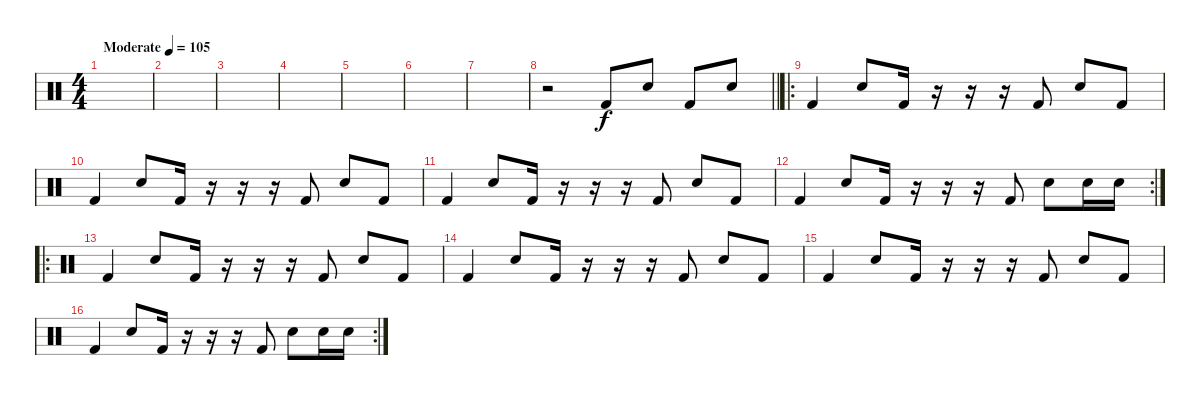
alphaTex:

\track "" {solo instrument percussion}
\staff {score}
\articulation defaults
\ts (4 4)
\tempo (105 "Moderate")
\clef neutral
\ks c
|
|
|
|
|
|
|
\barLineRight lightlight
r.2 "Kick (hit) 2".8 "Electric Snare (hit)".8 "Kick (hit) 2".8 "Electric Snare (hit)".8 |
\ro "Kick (hit) 2".4 "Electric Snare (hit)".8 "Kick (hit) 2".16
r.16 r.16 r.16 "Kick (hit) 2".8 "Electric Snare (hit)".8 "Kick (hit) 2".8 |
"Kick (hit) 2".4 "Electric Snare (hit)".8 "Kick (hit) 2".16 r.16 r.16 r.16 "Kick (hit) 2".8 "Electric Snare (hit)".8 "Kick (hit) 2".8 |
"Kick (hit) 2".4 "Electric Snare (hit)".8 "Kick (hit) 2".16 r.16 r.16 r.16 "Kick (hit) 2".8 "Electric Snare (hit)".8 "Kick (hit) 2".8 |
\rc 2 "Kick (hit) 2".4 "Electric Snare (hit)".8 "Kick (hit) 2".16
r.16 r.16 r.16 "Kick (hit) 2".8 "Electric Snare (hit)".8 "Electric Snare (hit)".16 "Electric Snare (hit)".16 |
\ro "Kick (hit) 2".4 "Electric Snare (hit)".8 "Kick (hit) 2".16
r.16 r.16 r.16 "Kick (hit) 2".8 "Electric Snare (hit)".8 "Kick (hit) 2".8 |
"Kick (hit) 2".4 "Electric Snare (hit)".8 "Kick (hit) 2".16 r.16 r.16 r.16 "Kick (hit) 2".8 "Electric Snare (hit)".8 "Kick (hit) 2".8 |
"Kick (hit) 2".4 "Electric Snare (hit)".8 "Kick (hit) 2".16 r.16 r.16 r.16 "Kick (hit) 2".8 "Electric Snare (hit)".8 "Kick (hit) 2".8 |
\rc 2 "Kick (hit) 2".4 "Electric Snare (hit)".8 "Kick (hit) 2".16
r.16 r.16 r.16 "Kick (hit) 2".8 "Electric Snare (hit)".8 "Electric Snare (hit)".16 "Electric Snare (hit)".16
